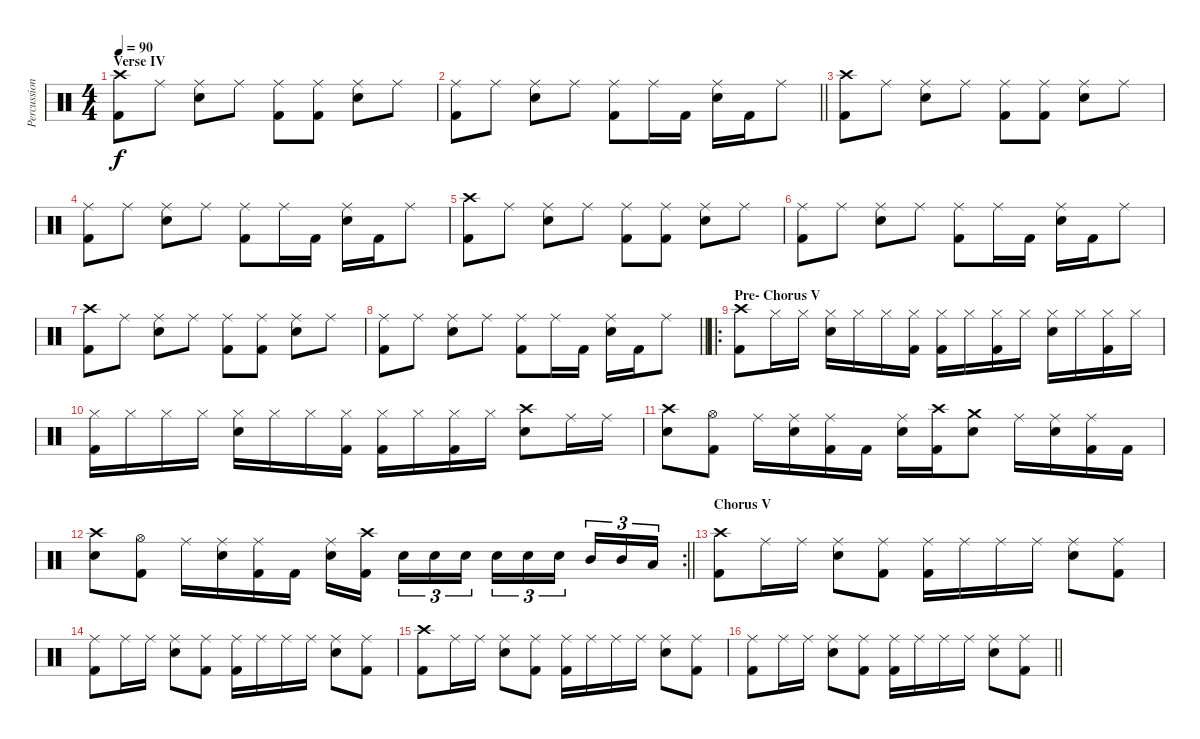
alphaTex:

\track ("Percussions" "Percussion") {instrument percussion}
\staff {score}
\articulation defaults
\ts (4 4)
\section ("" "Verse IV")
\tempo 90
\clef neutral
\ks c
("Crash high (hit)" "Kick (hit) 2").8{dy f} "Ride (middle)".8 ("Ride (middle)" "Electric Snare (hit)").8 "Ride (middle)".8 ("Ride (middle)" "Kick (hit) 2").8 ("Ride (middle)" "Kick (hit) 2").8 ("Ride (middle)" "Electric Snare (hit)").8 "Ride (middle)".8 |
\barLineRight lightlight
("Ride (middle)" "Kick (hit) 2").8 "Ride (middle)".8 ("Ride (middle)" "Electric Snare (hit)").8 "Ride (middle)".8 ("Ride (middle)" "Kick (hit) 2").8 "Ride (middle)".16 "Kick (hit) 2".16 ("Ride (middle)" "Electric Snare (hit)").16 "Kick (hit) 2".16 "Ride (middle)".8 |
("Crash high (hit)" "Kick (hit) 2").8 "Ride (middle)".8 ("Ride (middle)" "Electric Snare (hit)").8 "Ride (middle)".8 ("Ride (middle)" "Kick (hit) 2").8 ("Ride (middle)" "Kick (hit) 2").8 ("Ride (middle)" "Electric Snare (hit)").8 "Ride (middle)".8 |
("Ride (middle)" "Kick (hit) 2").8 "Ride (middle)".8 ("Ride (middle)" "Electric Snare (hit)").8 "Ride (middle)".8 ("Ride (middle)" "Kick (hit) 2").8 "Ride (middle)".16 "Kick (hit) 2".16 ("Ride (middle)" "Electric Snare (hit)").16 "Kick (hit) 2".16 "Ride (middle)".8 |
("Crash high (hit)" "Kick (hit) 2").8 "Ride (middle)".8 ("Ride (middle)" "Electric Snare (hit)").8 "Ride (middle)".8 ("Ride (middle)" "Kick (hit) 2").8 ("Ride (middle)" "Kick (hit) 2").8 ("Ride (middle)" "Electric Snare (hit)").8 "Ride (middle)".8 |
("Ride (middle)" "Kick (hit) 2").8 "Ride (middle)".8 ("Ride (middle)" "Electric Snare (hit)").8 "Ride (middle)".8 ("Ride (middle)" "Kick (hit) 2").8 "Ride (middle)".16 "Kick (hit) 2".16 ("Ride (middle)" "Electric Snare (hit)").16 "Kick (hit) 2".16 "Ride (middle)".8 |
("Crash high (hit)" "Kick (hit) 2").8 "Ride (middle)".8 ("Ride (middle)" "Electric Snare (hit)").8 "Ride (middle)".8 ("Ride (middle)" "Kick (hit) 2").8 ("Ride (middle)" "Kick (hit) 2").8 ("Ride (middle)" "Electric Snare (hit)").8 "Ride (middle)".8 |
\barLineRight lightlight
("Ride (middle)" "Kick (hit) 2").8 "Ride (middle)".8 ("Ride (middle)" "Electric Snare (hit)").8 "Ride (middle)".8 ("Ride (middle)" "Kick (hit) 2").8 "Ride (middle)".16 "Kick (hit) 2".16 ("Ride (middle)" "Electric Snare (hit)").16 "Kick (hit) 2".16 "Ride (middle)".8 |
\ro
\section ("" "Pre- Chorus V")
("Crash high (hit)" "Kick (hit) 2").8 "Hi-Hat (closed)".16 "Hi-Hat (closed)".16 ("Hi-Hat (closed)" "Electric Snare (hit)").16 "Hi-Hat (closed)".16 "Hi-Hat (closed)".16 ("Hi-Hat (closed)" "Kick (hit) 2").16 ("Hi-Hat (closed)" "Kick (hit) 2").16 "Hi-Hat (closed)".16 ("Hi-Hat (closed)" "Kick (hit) 2").16 "Hi-Hat (closed)".16 ("Hi-Hat (closed)" "Electric Snare (hit)").16 "Hi-Hat (closed)".16 ("Hi-Hat (closed)" "Kick (hit) 2").16 "Hi-Hat (closed)".16 |
("Hi-Hat (closed)" "Kick (hit) 2").16 "Hi-Hat (closed)".16 "Hi-Hat (closed)".16 "Hi-Hat (closed)".16 ("Hi-Hat (closed)" "Electric Snare (hit)").16 "Hi-Hat (closed)".16 "Hi-Hat (closed)".16 ("Hi-Hat (closed)" "Kick (hit) 2").16 ("Hi-Hat (closed)" "Kick (hit) 2").16 "Hi-Hat (closed)".16 ("Hi-Hat (closed)" "Kick (hit) 2").16 "Hi-Hat (closed)".16 ("Crash high (hit)" "Electric Snare (hit)").8 "Ride (middle)".16 "Ride (middle)".16 |
("Crash high (hit)" "Electric Snare (hit)").8 ("Hi-Hat (open)" "Kick (hit) 2").8 "Ride (middle)".16 ("Ride (middle)" "Electric Snare (hit)").16 ("Ride (middle)" "Kick (hit) 2").16 "Kick (hit) 2".16 ("Ride (middle)" "Electric Snare (hit)").16 ("Crash high (hit)" "Kick (hit) 2").16 ("Crash medium (hit)" "Electric Snare (hit)").8 "Ride (middle)".16 ("Ride (middle)" "Electric Snare (hit)").16 ("Ride (middle)" "Kick (hit) 2").16 "Kick (hit) 2".16 |
\rc 2
\barLineRight lightlight
("Crash high (hit)" "Electric Snare (hit)").8 ("Hi-Hat (open)" "Kick (hit) 2").8 "Ride (middle)".16 ("Ride (middle)" "Electric Snare (hit)").16 ("Ride (middle)" "Kick (hit) 2").16 "Kick (hit) 2".16 ("Ride (middle)" "Electric Snare (hit)").16 ("Crash high (hit)" "Kick (hit) 2").16{beam splitsecondary} "Electric Snare (hit)".16{tu (3 2)} "Electric Snare (hit)".16{tu (3 2)} "Electric Snare (hit)".16{tu (3 2)} "Electric Snare (hit)".16{tu (3 2)} "Electric Snare (hit)".16{tu (3 2)} "Electric Snare (hit)".16{tu (3 2) beam splitsecondary} "Mid Tom (hit)".16{tu (3 2)} "Mid Tom (hit)".16{tu (3 2)} "Low Tom (hit)".16{tu (3 2)} |
\section ("" "Chorus V")
("Crash high (hit)" "Kick (hit) 2").8 "Ride (middle)".16 "Ride (middle)".16 ("Ride (middle)" "Electric Snare (hit)").8 ("Ride (middle)" "Kick (hit) 2").8 ("Ride (middle)" "Kick (hit) 2").16 "Ride (middle)".16 "Ride (middle)".16 "Ride (middle)".16 ("Ride (middle)" "Electric Snare (hit)").8 ("Ride (middle)" "Kick (hit) 2").8 |
("Ride (middle)" "Kick (hit) 2").8 "Ride (middle)".16 "Ride (middle)".16 ("Ride (middle)" "Electric Snare (hit)").8 ("Ride (middle)" "Kick (hit) 2").8 ("Ride (middle)" "Kick (hit) 2").16 "Ride (middle)".16 "Ride (middle)".16 "Ride (middle)".16 ("Ride (middle)" "Electric Snare (hit)").8 ("Ride (middle)" "Kick (hit) 2").8 |
("Crash high (hit)" "Kick (hit) 2").8 "Ride (middle)".16 "Ride (middle)".16 ("Ride (middle)" "Electric Snare (hit)").8 ("Ride (middle)" "Kick (hit) 2").8 ("Ride (middle)" "Kick (hit) 2").16 "Ride (middle)".16 "Ride (middle)".16 "Ride (middle)".16 ("Ride (middle)" "Electric Snare (hit)").8 ("Ride (middle)" "Kick (hit) 2").8 |
\barLineRight lightlight
("Ride (middle)" "Kick (hit) 2").8 "Ride (middle)".16 "Ride (middle)".16 ("Ride (middle)" "Electric Snare (hit)").8 ("Ride (middle)" "Kick (hit) 2").8 ("Ride (middle)" "Kick (hit) 2").16 "Ride (middle)".16 "Ride (middle)".16 "Ride (middle)".16 ("Ride (middle)" "Electric Snare (hit)").8 ("Ride (middle)" "Kick (hit) 2").8
